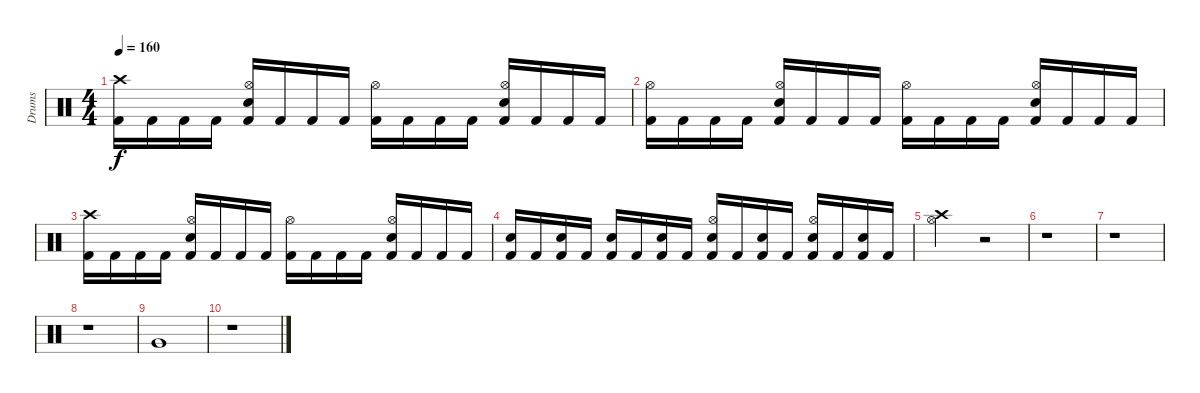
\track ("Drums" "Drums") {instrument percussion}
\staff {score}
\articulation defaults
\ts (4 4)
\tempo 160
\clef neutral
\ks c
("Crash high (hit)" "Kick (hit) 2").16{dy f} "Kick (hit) 2".16 "Kick (hit) 2".16 "Kick (hit) 2".16 ("Hi-Hat (open)" "Electric Snare (hit)" "Kick (hit) 2").16 "Kick (hit) 2".16 "Kick (hit) 2".16 "Kick (hit) 2".16 ("Hi-Hat (open)" "Kick (hit) 2").16 "Kick (hit) 2".16 "Kick (hit) 2".16 "Kick (hit) 2".16 ("Hi-Hat (open)" "Electric Snare (hit)" "Kick (hit) 2").16 "Kick (hit) 2".16 "Kick (hit) 2".16 "Kick (hit) 2".16 |
("Hi-Hat (open)" "Kick (hit) 2").16 "Kick (hit) 2".16 "Kick (hit) 2".16 "Kick (hit) 2".16 ("Hi-Hat (open)" "Electric Snare (hit)" "Kick (hit) 2").16 "Kick (hit) 2".16 "Kick (hit) 2".16 "Kick (hit) 2".16 ("Hi-Hat (open)" "Kick (hit) 2").16 "Kick (hit) 2".16 "Kick (hit) 2".16 "Kick (hit) 2".16 ("Hi-Hat (open)" "Electric Snare (hit)" "Kick (hit) 2").16 "Kick (hit) 2".16 "Kick (hit) 2".16 "Kick (hit) 2".16 |
("Crash high (hit)" "Kick (hit) 2").16 "Kick (hit) 2".16 "Kick (hit) 2".16 "Kick (hit) 2".16 ("Hi-Hat (open)" "Electric Snare (hit)" "Kick (hit) 2").16 "Kick (hit) 2".16 "Kick (hit) 2".16 "Kick (hit) 2".16 ("Hi-Hat (open)" "Kick (hit) 2").16 "Kick (hit) 2".16 "Kick (hit) 2".16 "Kick (hit) 2".16 ("Hi-Hat (open)" "Electric Snare (hit)" "Kick (hit) 2").16 "Kick (hit) 2".16 "Kick (hit) 2".16 "Kick (hit) 2".16 |
("Electric Snare (hit)" "Kick (hit) 2").16 "Kick (hit) 2".16 ("Electric Snare (hit)" "Kick (hit) 2").16 "Kick (hit) 2".16 ("Electric Snare (hit)" "Kick (hit) 2").16 "Kick (hit) 2".16 ("Electric Snare (hit)" "Kick (hit) 2").16 "Kick (hit) 2".16 ("Hi-Hat (open)" "Electric Snare (hit)" "Kick (hit) 2").16 "Kick (hit) 2".16 ("Electric Snare (hit)" "Kick (hit) 2").16 "Kick (hit) 2".16 ("Hi-Hat (open)" "Electric Snare (hit)" "Kick (hit) 2").16 "Kick (hit) 2".16 ("Electric Snare (hit)" "Kick (hit) 2").16 "Kick (hit) 2".16 |
("Crash high (hit)" "Hi-Hat (open)").2 r.2 |
r.1 |
r.1 |
r.1 |
"Very Low Tom (hit)".1 |
r.1
